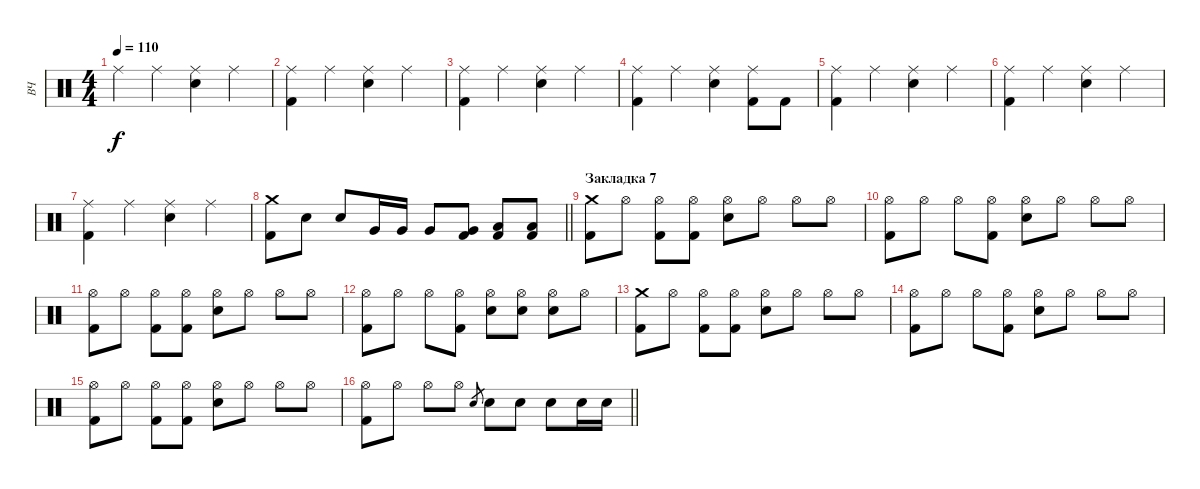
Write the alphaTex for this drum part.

\track ("ВЧ" "ВЧ") {instrument percussion}
\staff {score}
\articulation defaults
\ts (4 4)
\tempo 110
\clef neutral
\ks c "Ride (middle)".4{dy f} "Ride (middle)".4
("Ride (middle)" "Snare (hit) 2").4 "Ride (middle)".4 |
("Ride (middle)" "Kick (hit) 2").4 "Ride (middle)".4 ("Ride (middle)" "Snare (hit) 2").4 "Ride (middle)".4 |
("Ride (middle)" "Kick (hit) 2").4 "Ride (middle)".4 ("Ride (middle)" "Snare (hit) 2").4 "Ride (middle)".4 |
("Ride (middle)" "Kick (hit) 2").4 "Ride (middle)".4 ("Ride (middle)" "Snare (hit) 2").4 ("Ride (middle)" "Kick (hit) 2").8 "Kick (hit) 2".8 |
("Ride (middle)" "Kick (hit) 2").4 "Ride (middle)".4 ("Ride (middle)" "Snare (hit) 2").4 "Ride (middle)".4 |
("Ride (middle)" "Kick (hit) 2").4 "Ride (middle)".4 ("Ride (middle)" "Snare (hit) 2").4 "Ride (middle)".4 |
("Ride (middle)" "Kick (hit) 2").4 "Ride (middle)".4 ("Ride (middle)" "Snare (hit) 2").4 "Ride (middle)".4 |
\barLineRight lightlight
("Crash medium (hit)" "Kick (hit) 2").8 "Snare (hit) 2".8 "Snare (hit) 2".8 "Very Low Tom (hit)".16 "Very Low Tom (hit)".16 "Very Low Tom (hit)".8 ("Very Low Tom (hit)" "Kick (hit) 2").8 ("Low Floor Tom (hit)" "Kick (hit) 2").8 ("Low Tom (hit)" "Kick (hit) 2").8 |
\section ("" "Закладка 7")
("Crash medium (hit)" "Kick (hit) 2").8 "Hi-Hat (open)".8 ("Hi-Hat (open)" "Kick (hit) 2").8 ("Hi-Hat (open)" "Kick (hit) 2").8 ("Hi-Hat (open)" "Snare (hit) 2").8 "Hi-Hat (open)".8 "Hi-Hat (open)".8 "Hi-Hat (open)".8 |
("Hi-Hat (open)" "Kick (hit) 2").8 "Hi-Hat (open)".8 "Hi-Hat (open)".8 ("Hi-Hat (open)" "Kick (hit) 2").8 ("Hi-Hat (open)" "Snare (hit) 2").8 "Hi-Hat (open)".8 "Hi-Hat (open)".8 "Hi-Hat (open)".8 |
("Hi-Hat (open)" "Kick (hit) 2").8 "Hi-Hat (open)".8 ("Hi-Hat (open)" "Kick (hit) 2").8 ("Hi-Hat (open)" "Kick (hit) 2").8 ("Hi-Hat (open)" "Snare (hit) 2").8 "Hi-Hat (open)".8 "Hi-Hat (open)".8 "Hi-Hat (open)".8 |
("Hi-Hat (open)" "Kick (hit) 2").8 "Hi-Hat (open)".8 "Hi-Hat (open)".8 ("Hi-Hat (open)" "Kick (hit) 2").8 ("Hi-Hat (open)" "Snare (hit) 2").8 ("Hi-Hat (open)" "Snare (hit) 2").8 ("Hi-Hat (open)" "Snare (hit) 2").8 "Hi-Hat (open)".8 |
("Crash medium (hit)" "Kick (hit) 2").8 "Hi-Hat (open)".8 ("Hi-Hat (open)" "Kick (hit) 2").8 ("Hi-Hat (open)" "Kick (hit) 2").8 ("Hi-Hat (open)" "Snare (hit) 2").8 "Hi-Hat (open)".8 "Hi-Hat (open)".8 "Hi-Hat (open)".8 |
("Hi-Hat (open)" "Kick (hit) 2").8 "Hi-Hat (open)".8 "Hi-Hat (open)".8 ("Hi-Hat (open)" "Kick (hit) 2").8 ("Hi-Hat (open)" "Snare (hit) 2").8 "Hi-Hat (open)".8 "Hi-Hat (open)".8 "Hi-Hat (open)".8 |
("Hi-Hat (open)" "Kick (hit) 2").8 "Hi-Hat (open)".8 ("Hi-Hat (open)" "Kick (hit) 2").8 ("Hi-Hat (open)" "Kick (hit) 2").8 ("Hi-Hat (open)" "Snare (hit) 2").8 "Hi-Hat (open)".8 "Hi-Hat (open)".8 "Hi-Hat (open)".8 |
\barLineRight lightlight
("Hi-Hat (open)" "Kick (hit) 2").8 "Hi-Hat (open)".8 "Hi-Hat (open)".8 "Hi-Hat (open)".8 "Snare (hit) 2".8{gr} "Snare (hit) 2".8 "Snare (hit) 2".8 "Snare (hit) 2".8 "Snare (hit) 2".16 "Snare (hit) 2".16
